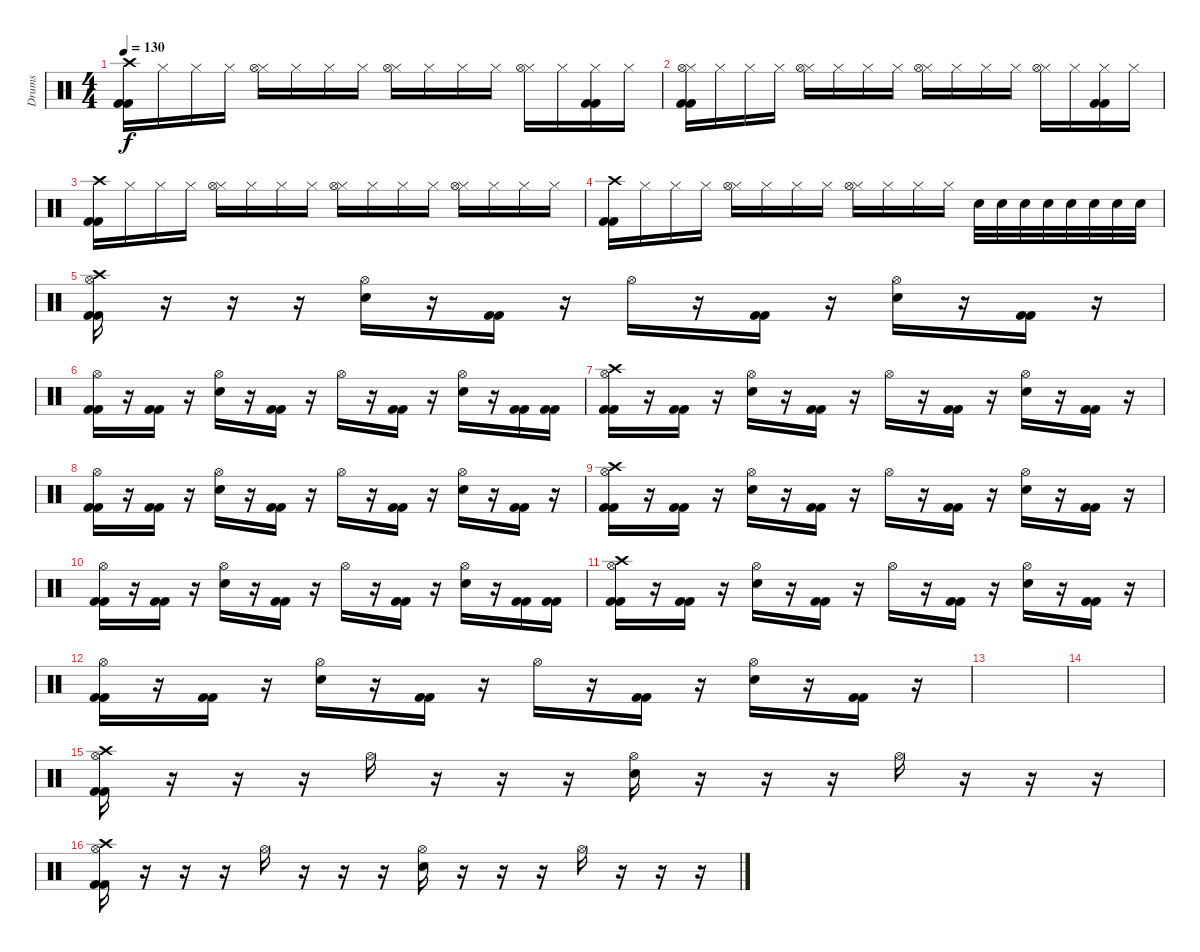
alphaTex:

\track ("Drums" "Drums") {instrument percussion}
\staff {score}
\articulation defaults
\ts (4 4)
\tempo 130
\clef neutral
\ks c
("Crash high (hit)" "Kick (hit) 2" "Kick (hit) 2").16{dy f} "Hi-Hat (closed)".16 "Hi-Hat (closed)".16 "Hi-Hat (closed)".16 ("Hi-Hat (closed)" "Hi-Hat (open)").16 "Hi-Hat (closed)".16 "Hi-Hat (closed)".16 "Hi-Hat (closed)".16 ("Hi-Hat (closed)" "Hi-Hat (open)").16 "Hi-Hat (closed)".16 "Hi-Hat (closed)".16 "Hi-Hat (closed)".16 ("Hi-Hat (closed)" "Hi-Hat (open)").16 "Hi-Hat (closed)".16 ("Hi-Hat (closed)" "Kick (hit) 2" "Kick (hit) 2").16 "Hi-Hat (closed)".16 |
("Hi-Hat (closed)" "Hi-Hat (open)" "Kick (hit) 2" "Kick (hit) 2").16 "Hi-Hat (closed)".16 "Hi-Hat (closed)".16 "Hi-Hat (closed)".16 ("Hi-Hat (closed)" "Hi-Hat (open)").16 "Hi-Hat (closed)".16 "Hi-Hat (closed)".16 "Hi-Hat (closed)".16 ("Hi-Hat (closed)" "Hi-Hat (open)").16 "Hi-Hat (closed)".16 "Hi-Hat (closed)".16 "Hi-Hat (closed)".16 ("Hi-Hat (closed)" "Hi-Hat (open)").16 "Hi-Hat (closed)".16 ("Hi-Hat (closed)" "Kick (hit) 2" "Kick (hit) 2").16 "Hi-Hat (closed)".16 |
("Crash high (hit)" "Kick (hit) 2" "Kick (hit) 2").16 "Hi-Hat (closed)".16 "Hi-Hat (closed)".16 "Hi-Hat (closed)".16 ("Hi-Hat (closed)" "Hi-Hat (open)").16 "Hi-Hat (closed)".16 "Hi-Hat (closed)".16 "Hi-Hat (closed)".16 ("Hi-Hat (closed)" "Hi-Hat (open)").16 "Hi-Hat (closed)".16 "Hi-Hat (closed)".16 "Hi-Hat (closed)".16 ("Hi-Hat (closed)" "Hi-Hat (open)").16 "Hi-Hat (closed)".16 "Hi-Hat (closed)".16 "Hi-Hat (closed)".16 |
("Crash high (hit)" "Kick (hit) 2" "Kick (hit) 2").16 "Hi-Hat (closed)".16 "Hi-Hat (closed)".16 "Hi-Hat (closed)".16 ("Hi-Hat (closed)" "Hi-Hat (open)").16 "Hi-Hat (closed)".16 "Hi-Hat (closed)".16 "Hi-Hat (closed)".16 ("Hi-Hat (closed)" "Hi-Hat (open)").16 "Hi-Hat (closed)".16 "Hi-Hat (closed)".16 "Hi-Hat (closed)".16 "Electric Snare (hit)".32 "Electric Snare (hit)".32 "Electric Snare (hit)".32 "Electric Snare (hit)".32 "Electric Snare (hit)".32 "Electric Snare (hit)".32 "Electric Snare (hit)".32 "Electric Snare (hit)".32 |
("Crash high (hit)" "Hi-Hat (open)" "Kick (hit) 2" "Kick (hit) 2").16 r.16 r.16 r.16 ("Hi-Hat (open)" "Electric Snare (hit)").16 r.16 ("Kick (hit) 2" "Kick (hit) 2").16 r.16 "Hi-Hat (open)".16 r.16 ("Kick (hit) 2" "Kick (hit) 2").16 r.16 ("Hi-Hat (open)" "Electric Snare (hit)").16 r.16 ("Kick (hit) 2" "Kick (hit) 2").16 r.16 |
("Hi-Hat (open)" "Kick (hit) 2" "Kick (hit) 2").16 r.16 ("Kick (hit) 2" "Kick (hit) 2").16 r.16 ("Hi-Hat (open)" "Electric Snare (hit)").16 r.16 ("Kick (hit) 2" "Kick (hit) 2").16 r.16 "Hi-Hat (open)".16 r.16 ("Kick (hit) 2" "Kick (hit) 2").16 r.16 ("Hi-Hat (open)" "Electric Snare (hit)").16 r.16 ("Kick (hit) 2" "Kick (hit) 2").16 ("Kick (hit) 2" "Kick (hit) 2").16 |
("Crash high (hit)" "Hi-Hat (open)" "Kick (hit) 2" "Kick (hit) 2").16 r.16 ("Kick (hit) 2" "Kick (hit) 2").16 r.16 ("Hi-Hat (open)" "Electric Snare (hit)").16 r.16 ("Kick (hit) 2" "Kick (hit) 2").16 r.16 "Hi-Hat (open)".16 r.16 ("Kick (hit) 2" "Kick (hit) 2").16 r.16 ("Hi-Hat (open)" "Electric Snare (hit)").16 r.16 ("Kick (hit) 2" "Kick (hit) 2").16 r.16 |
("Hi-Hat (open)" "Kick (hit) 2" "Kick (hit) 2").16 r.16 ("Kick (hit) 2" "Kick (hit) 2").16 r.16 ("Hi-Hat (open)" "Electric Snare (hit)").16 r.16 ("Kick (hit) 2" "Kick (hit) 2").16 r.16 "Hi-Hat (open)".16 r.16 ("Kick (hit) 2" "Kick (hit) 2").16 r.16 ("Hi-Hat (open)" "Electric Snare (hit)").16 r.16 ("Kick (hit) 2" "Kick (hit) 2").16 r.16 |
("Crash high (hit)" "Hi-Hat (open)" "Kick (hit) 2" "Kick (hit) 2").16 r.16 ("Kick (hit) 2" "Kick (hit) 2").16 r.16 ("Hi-Hat (open)" "Electric Snare (hit)").16 r.16 ("Kick (hit) 2" "Kick (hit) 2").16 r.16 "Hi-Hat (open)".16 r.16 ("Kick (hit) 2" "Kick (hit) 2").16 r.16 ("Hi-Hat (open)" "Electric Snare (hit)").16 r.16 ("Kick (hit) 2" "Kick (hit) 2").16 r.16 |
("Hi-Hat (open)" "Kick (hit) 2" "Kick (hit) 2").16 r.16 ("Kick (hit) 2" "Kick (hit) 2").16 r.16 ("Hi-Hat (open)" "Electric Snare (hit)").16 r.16 ("Kick (hit) 2" "Kick (hit) 2").16 r.16 "Hi-Hat (open)".16 r.16 ("Kick (hit) 2" "Kick (hit) 2").16 r.16 ("Hi-Hat (open)" "Electric Snare (hit)").16 r.16 ("Kick (hit) 2" "Kick (hit) 2").16 ("Kick (hit) 2" "Kick (hit) 2").16 |
("Crash high (hit)" "Hi-Hat (open)" "Kick (hit) 2" "Kick (hit) 2").16 r.16 ("Kick (hit) 2" "Kick (hit) 2").16 r.16 ("Hi-Hat (open)" "Electric Snare (hit)").16 r.16 ("Kick (hit) 2" "Kick (hit) 2").16 r.16 "Hi-Hat (open)".16 r.16 ("Kick (hit) 2" "Kick (hit) 2").16 r.16 ("Hi-Hat (open)" "Electric Snare (hit)").16 r.16 ("Kick (hit) 2" "Kick (hit) 2").16 r.16 |
("Hi-Hat (open)" "Kick (hit) 2" "Kick (hit) 2").16 r.16 ("Kick (hit) 2" "Kick (hit) 2").16 r.16 ("Hi-Hat (open)" "Electric Snare (hit)").16 r.16 ("Kick (hit) 2" "Kick (hit) 2").16 r.16 "Hi-Hat (open)".16 r.16 ("Kick (hit) 2" "Kick (hit) 2").16 r.16 ("Hi-Hat (open)" "Electric Snare (hit)").16 r.16 ("Kick (hit) 2" "Kick (hit) 2").16 r.16 |
|
|
("Crash high (hit)" "Hi-Hat (open)" "Kick (hit) 2" "Kick (hit) 2").16 r.16 r.16 r.16 "Hi-Hat (open)".16 r.16 r.16 r.16 ("Hi-Hat (open)" "Electric Snare (hit)").16 r.16 r.16 r.16 "Hi-Hat (open)".16 r.16 r.16 r.16 |
("Crash high (hit)" "Hi-Hat (open)" "Kick (hit) 2" "Kick (hit) 2").16 r.16 r.16 r.16 "Hi-Hat (open)".16 r.16 r.16 r.16 ("Hi-Hat (open)" "Electric Snare (hit)").16 r.16 r.16 r.16 "Hi-Hat (open)".16 r.16 r.16 r.16
